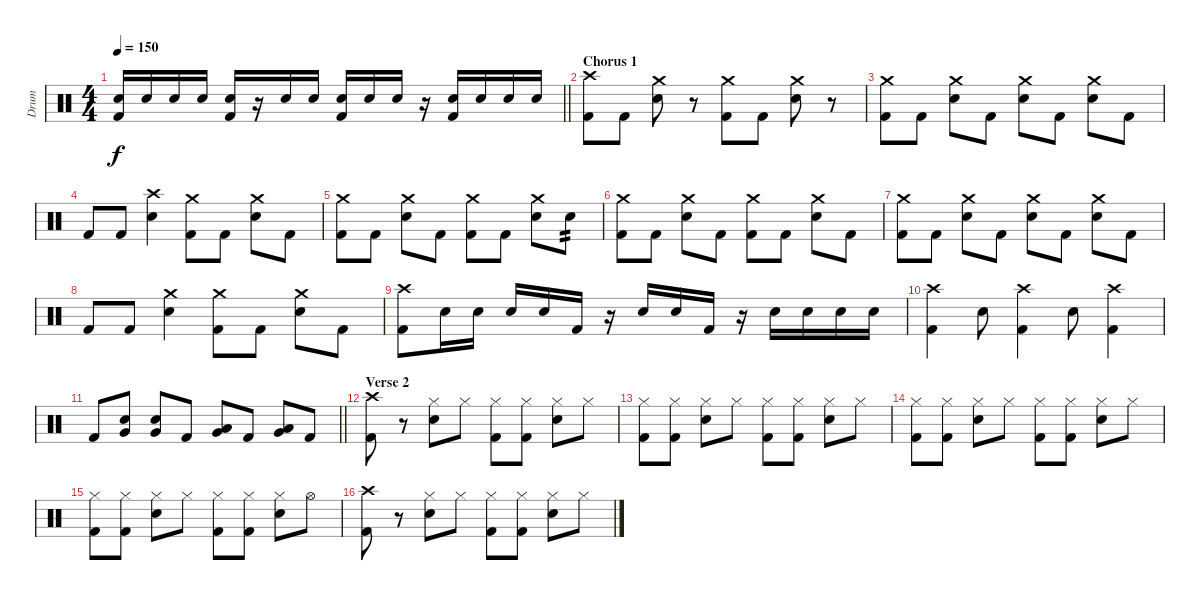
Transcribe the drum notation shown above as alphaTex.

\track ("Drum" "Drum") {instrument percussion}
\staff {score}
\articulation defaults
\ts (4 4)
\tempo 150
\clef neutral
\barLineRight lightlight
\ks c
("Electric Snare (hit)" "Kick (hit) 2").16{dy f} "Electric Snare (hit)".16 "Electric Snare (hit)".16 "Electric Snare (hit)".16 ("Electric Snare (hit)" "Kick (hit) 2").16 r.16 "Electric Snare (hit)".16 "Electric Snare (hit)".16 ("Electric Snare (hit)" "Kick (hit) 2").16 "Electric Snare (hit)".16 "Electric Snare (hit)".16 r.16 ("Electric Snare (hit)" "Kick (hit) 2").16 "Electric Snare (hit)".16 "Electric Snare (hit)".16 "Electric Snare (hit)".16 |
\section ("" "Chorus 1")
("Kick (hit) 2" "Crash high (hit)").8 "Kick (hit) 2".8 ("Electric Snare (hit)" "Crash medium (hit)").8 r.8 ("Kick (hit) 2" "Crash medium (hit)").8 "Kick (hit) 2".8 ("Electric Snare (hit)" "Crash medium (hit)").8 r.8 |
("Kick (hit) 2" "Crash medium (hit)").8 "Kick (hit) 2".8 ("Electric Snare (hit)" "Crash medium (hit)").8 "Kick (hit) 2".8 ("Electric Snare (hit)" "Crash medium (hit)").8 "Kick (hit) 2".8 ("Electric Snare (hit)" "Crash medium (hit)").8 "Kick (hit) 2".8 |
"Kick (hit) 2".8 "Kick (hit) 2".8 ("Electric Snare (hit)" "Crash high (hit)").4 ("Kick (hit) 2" "Crash medium (hit)").8 "Kick (hit) 2".8 ("Electric Snare (hit)" "Crash medium (hit)").8 "Kick (hit) 2".8 |
("Kick (hit) 2" "Crash medium (hit)").8 "Kick (hit) 2".8 ("Electric Snare (hit)" "Crash medium (hit)").8 "Kick (hit) 2".8 ("Kick (hit) 2" "Crash medium (hit)").8 "Kick (hit) 2".8 ("Electric Snare (hit)" "Crash medium (hit)").8 "Electric Snare (hit)".8{tp 2} |
("Kick (hit) 2" "Crash medium (hit)").8 "Kick (hit) 2".8 ("Electric Snare (hit)" "Crash medium (hit)").8 "Kick (hit) 2".8 ("Kick (hit) 2" "Crash medium (hit)").8 "Kick (hit) 2".8 ("Electric Snare (hit)" "Crash medium (hit)").8 "Kick (hit) 2".8 |
("Kick (hit) 2" "Crash medium (hit)").8 "Kick (hit) 2".8 ("Electric Snare (hit)" "Crash medium (hit)").8 "Kick (hit) 2".8 ("Electric Snare (hit)" "Crash medium (hit)").8 "Kick (hit) 2".8 ("Electric Snare (hit)" "Crash medium (hit)").8 "Kick (hit) 2".8 |
"Kick (hit) 2".8 "Kick (hit) 2".8 ("Electric Snare (hit)" "Crash medium (hit)").4 ("Kick (hit) 2" "Crash medium (hit)").8 "Kick (hit) 2".8 ("Electric Snare (hit)" "Crash medium (hit)").8 "Kick (hit) 2".8 |
("Kick (hit) 2" "Crash high (hit)").8 "Electric Snare (hit)".16 "Electric Snare (hit)".16 "Electric Snare (hit)".16 "Electric Snare (hit)".16 "Kick (hit) 2".16 r.16 "Electric Snare (hit)".16 "Electric Snare (hit)".16 "Kick (hit) 2".16 r.16 "Electric Snare (hit)".16 "Electric Snare (hit)".16 "Electric Snare (hit)".16 "Electric Snare (hit)".16 |
("Kick (hit) 2" "Crash high (hit)").4 "Electric Snare (hit)".8 ("Kick (hit) 2" "Crash high (hit)").4 "Electric Snare (hit)".8 ("Kick (hit) 2" "Crash high (hit)").4 |
\barLineRight lightlight "Kick (hit) 2".8
("Electric Snare (hit)" "Very Low Tom (hit)").8 ("Electric Snare (hit)" "Very Low Tom (hit)").8 "Kick (hit) 2".8 ("Low Tom (hit)" "Very Low Tom (hit)").8 "Kick (hit) 2".8 ("Very Low Tom (hit)" "Low Floor Tom (hit)").8 "Kick (hit) 2".8 |
\section ("" "Verse 2")
("Kick (hit) 2" "Crash high (hit)").8 r.8 ("Electric Snare (hit)" "Hi-Hat (closed)").8 "Hi-Hat (closed)".8 ("Kick (hit) 2" "Hi-Hat (closed)").8 ("Kick (hit) 2" "Hi-Hat (closed)").8 ("Electric Snare (hit)" "Hi-Hat (closed)").8 "Hi-Hat (closed)".8 |
("Kick (hit) 2" "Hi-Hat (closed)").8 ("Kick (hit) 2" "Hi-Hat (closed)").8 ("Electric Snare (hit)" "Hi-Hat (closed)").8 "Hi-Hat (closed)".8 ("Kick (hit) 2" "Hi-Hat (closed)").8 ("Kick (hit) 2" "Hi-Hat (closed)").8 ("Electric Snare (hit)" "Hi-Hat (closed)").8 "Hi-Hat (closed)".8 |
("Kick (hit) 2" "Hi-Hat (closed)").8 ("Kick (hit) 2" "Hi-Hat (closed)").8 ("Electric Snare (hit)" "Hi-Hat (closed)").8 "Hi-Hat (closed)".8 ("Kick (hit) 2" "Hi-Hat (closed)").8 ("Kick (hit) 2" "Hi-Hat (closed)").8 ("Electric Snare (hit)" "Hi-Hat (closed)").8 "Hi-Hat (closed)".8 |
("Kick (hit) 2" "Hi-Hat (closed)").8 ("Kick (hit) 2" "Hi-Hat (closed)").8 ("Electric Snare (hit)" "Hi-Hat (closed)").8 "Hi-Hat (closed)".8 ("Kick (hit) 2" "Hi-Hat (closed)").8 ("Kick (hit) 2" "Hi-Hat (closed)").8 ("Electric Snare (hit)" "Hi-Hat (closed)").8 "Hi-Hat (open)".8 |
("Kick (hit) 2" "Crash high (hit)").8 r.8 ("Electric Snare (hit)" "Hi-Hat (closed)").8 "Hi-Hat (closed)".8 ("Kick (hit) 2" "Hi-Hat (closed)").8 ("Kick (hit) 2" "Hi-Hat (closed)").8 ("Electric Snare (hit)" "Hi-Hat (closed)").8 "Hi-Hat (closed)".8
